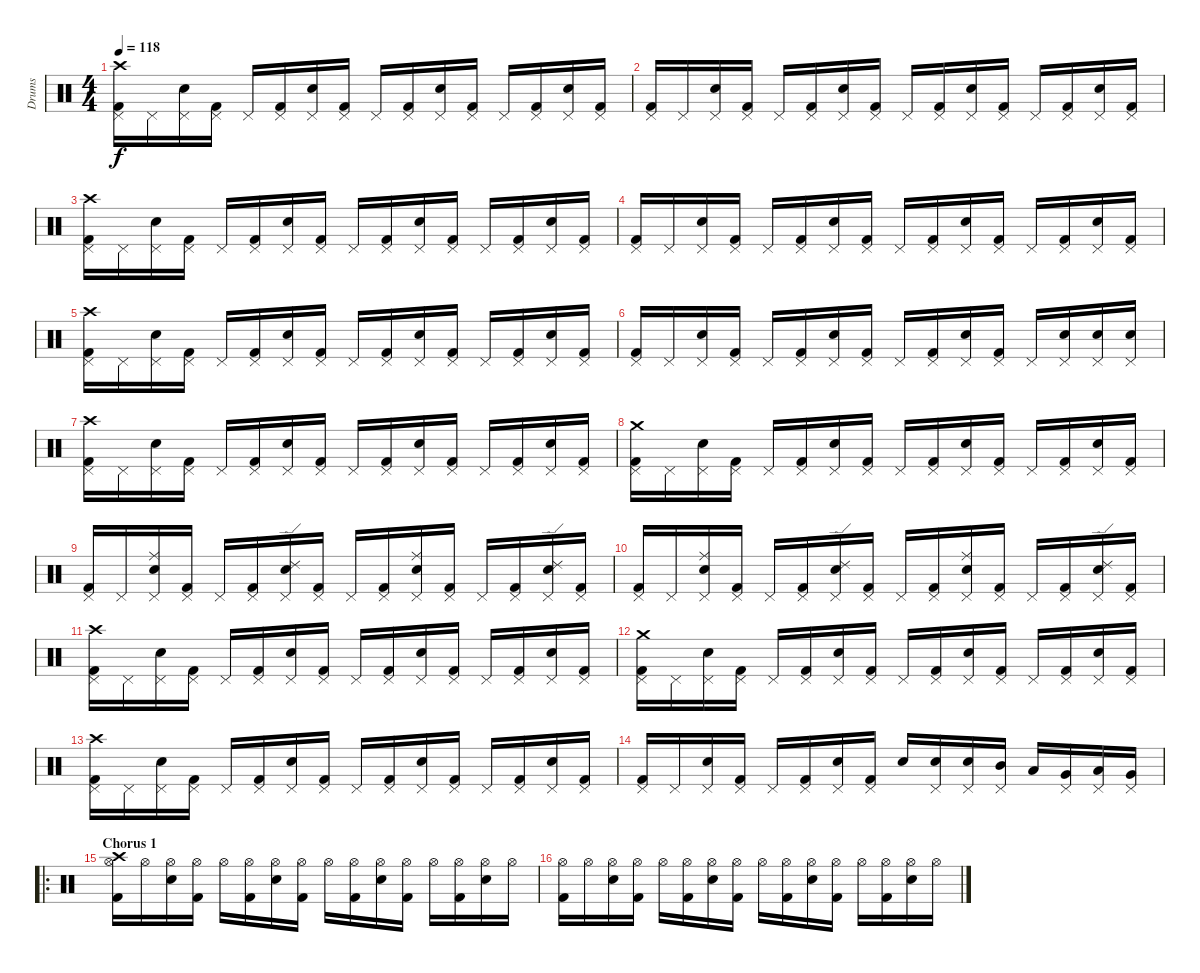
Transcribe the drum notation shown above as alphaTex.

\track ("Drums" "Drums") {instrument percussion}
\staff {score}
\articulation defaults
\ts (4 4)
\tempo 118
\clef neutral
\ks c
("Kick (hit) 2" "Pedal Hi-Hat (hit)" "Crash high (hit)").16{dy f} "Pedal Hi-Hat (hit)".16 ("Snare (hit) 2" "Pedal Hi-Hat (hit)").16 ("Kick (hit) 2" "Pedal Hi-Hat (hit)").16 "Pedal Hi-Hat (hit)".16 ("Kick (hit) 2" "Pedal Hi-Hat (hit)").16 ("Snare (hit) 2" "Pedal Hi-Hat (hit)").16 ("Kick (hit) 2" "Pedal Hi-Hat (hit)").16 "Pedal Hi-Hat (hit)".16 ("Kick (hit) 2" "Pedal Hi-Hat (hit)").16 ("Snare (hit) 2" "Pedal Hi-Hat (hit)").16 ("Kick (hit) 2" "Pedal Hi-Hat (hit)").16 "Pedal Hi-Hat (hit)".16 ("Kick (hit) 2" "Pedal Hi-Hat (hit)").16 ("Snare (hit) 2" "Pedal Hi-Hat (hit)").16 ("Kick (hit) 2" "Pedal Hi-Hat (hit)").16 |
("Kick (hit) 2" "Pedal Hi-Hat (hit)").16 "Pedal Hi-Hat (hit)".16 ("Snare (hit) 2" "Pedal Hi-Hat (hit)").16 ("Kick (hit) 2" "Pedal Hi-Hat (hit)").16 "Pedal Hi-Hat (hit)".16 ("Kick (hit) 2" "Pedal Hi-Hat (hit)").16 ("Snare (hit) 2" "Pedal Hi-Hat (hit)").16 ("Kick (hit) 2" "Pedal Hi-Hat (hit)").16 "Pedal Hi-Hat (hit)".16 ("Kick (hit) 2" "Pedal Hi-Hat (hit)").16 ("Snare (hit) 2" "Pedal Hi-Hat (hit)").16 ("Kick (hit) 2" "Pedal Hi-Hat (hit)").16 "Pedal Hi-Hat (hit)".16 ("Kick (hit) 2" "Pedal Hi-Hat (hit)").16 ("Snare (hit) 2" "Pedal Hi-Hat (hit)").16 ("Kick (hit) 2" "Pedal Hi-Hat (hit)").16 |
("Kick (hit) 2" "Pedal Hi-Hat (hit)" "Crash high (hit)").16 "Pedal Hi-Hat (hit)".16 ("Snare (hit) 2" "Pedal Hi-Hat (hit)").16 ("Kick (hit) 2" "Pedal Hi-Hat (hit)").16 "Pedal Hi-Hat (hit)".16 ("Kick (hit) 2" "Pedal Hi-Hat (hit)").16 ("Snare (hit) 2" "Pedal Hi-Hat (hit)").16 ("Kick (hit) 2" "Pedal Hi-Hat (hit)").16 "Pedal Hi-Hat (hit)".16 ("Kick (hit) 2" "Pedal Hi-Hat (hit)").16 ("Snare (hit) 2" "Pedal Hi-Hat (hit)").16 ("Kick (hit) 2" "Pedal Hi-Hat (hit)").16 "Pedal Hi-Hat (hit)".16 ("Kick (hit) 2" "Pedal Hi-Hat (hit)").16 ("Snare (hit) 2" "Pedal Hi-Hat (hit)").16 ("Kick (hit) 2" "Pedal Hi-Hat (hit)").16 |
("Kick (hit) 2" "Pedal Hi-Hat (hit)").16 "Pedal Hi-Hat (hit)".16 ("Snare (hit) 2" "Pedal Hi-Hat (hit)").16 ("Kick (hit) 2" "Pedal Hi-Hat (hit)").16 "Pedal Hi-Hat (hit)".16 ("Kick (hit) 2" "Pedal Hi-Hat (hit)").16 ("Snare (hit) 2" "Pedal Hi-Hat (hit)").16 ("Kick (hit) 2" "Pedal Hi-Hat (hit)").16 "Pedal Hi-Hat (hit)".16 ("Kick (hit) 2" "Pedal Hi-Hat (hit)").16 ("Snare (hit) 2" "Pedal Hi-Hat (hit)").16 ("Kick (hit) 2" "Pedal Hi-Hat (hit)").16 "Pedal Hi-Hat (hit)".16 ("Kick (hit) 2" "Pedal Hi-Hat (hit)").16 ("Snare (hit) 2" "Pedal Hi-Hat (hit)").16 ("Kick (hit) 2" "Pedal Hi-Hat (hit)").16 |
("Kick (hit) 2" "Pedal Hi-Hat (hit)" "Crash high (hit)").16 "Pedal Hi-Hat (hit)".16 ("Snare (hit) 2" "Pedal Hi-Hat (hit)").16 ("Kick (hit) 2" "Pedal Hi-Hat (hit)").16 "Pedal Hi-Hat (hit)".16 ("Kick (hit) 2" "Pedal Hi-Hat (hit)").16 ("Snare (hit) 2" "Pedal Hi-Hat (hit)").16 ("Kick (hit) 2" "Pedal Hi-Hat (hit)").16 "Pedal Hi-Hat (hit)".16 ("Kick (hit) 2" "Pedal Hi-Hat (hit)").16 ("Snare (hit) 2" "Pedal Hi-Hat (hit)").16 ("Kick (hit) 2" "Pedal Hi-Hat (hit)").16 "Pedal Hi-Hat (hit)".16 ("Kick (hit) 2" "Pedal Hi-Hat (hit)").16 ("Snare (hit) 2" "Pedal Hi-Hat (hit)").16 ("Kick (hit) 2" "Pedal Hi-Hat (hit)").16 |
("Kick (hit) 2" "Pedal Hi-Hat (hit)").16 "Pedal Hi-Hat (hit)".16 ("Snare (hit) 2" "Pedal Hi-Hat (hit)").16 ("Kick (hit) 2" "Pedal Hi-Hat (hit)").16 "Pedal Hi-Hat (hit)".16 ("Kick (hit) 2" "Pedal Hi-Hat (hit)").16 ("Snare (hit) 2" "Pedal Hi-Hat (hit)").16 ("Kick (hit) 2" "Pedal Hi-Hat (hit)").16 "Pedal Hi-Hat (hit)".16 ("Kick (hit) 2" "Pedal Hi-Hat (hit)").16 ("Snare (hit) 2" "Pedal Hi-Hat (hit)").16 ("Kick (hit) 2" "Pedal Hi-Hat (hit)").16 "Pedal Hi-Hat (hit)".16 ("Snare (hit) 2" "Pedal Hi-Hat (hit)").16 ("Snare (hit) 2" "Pedal Hi-Hat (hit)").16 ("Snare (hit) 2" "Pedal Hi-Hat (hit)").16 |
("Kick (hit) 2" "Pedal Hi-Hat (hit)" "Crash high (hit)").16 "Pedal Hi-Hat (hit)".16 ("Snare (hit) 2" "Pedal Hi-Hat (hit)").16 ("Kick (hit) 2" "Pedal Hi-Hat (hit)").16 "Pedal Hi-Hat (hit)".16 ("Kick (hit) 2" "Pedal Hi-Hat (hit)").16 ("Snare (hit) 2" "Pedal Hi-Hat (hit)").16 ("Kick (hit) 2" "Pedal Hi-Hat (hit)").16 "Pedal Hi-Hat (hit)".16 ("Kick (hit) 2" "Pedal Hi-Hat (hit)").16 ("Snare (hit) 2" "Pedal Hi-Hat (hit)").16 ("Kick (hit) 2" "Pedal Hi-Hat (hit)").16 "Pedal Hi-Hat (hit)".16 ("Kick (hit) 2" "Pedal Hi-Hat (hit)").16 ("Snare (hit) 2" "Pedal Hi-Hat (hit)").16 ("Kick (hit) 2" "Pedal Hi-Hat (hit)").16 |
("Kick (hit) 2" "Pedal Hi-Hat (hit)" "Crash medium (hit)").16 "Pedal Hi-Hat (hit)".16 ("Snare (hit) 2" "Pedal Hi-Hat (hit)").16 ("Kick (hit) 2" "Pedal Hi-Hat (hit)").16 "Pedal Hi-Hat (hit)".16 ("Kick (hit) 2" "Pedal Hi-Hat (hit)").16 ("Snare (hit) 2" "Pedal Hi-Hat (hit)").16 ("Kick (hit) 2" "Pedal Hi-Hat (hit)").16 "Pedal Hi-Hat (hit)".16 ("Kick (hit) 2" "Pedal Hi-Hat (hit)").16 ("Snare (hit) 2" "Pedal Hi-Hat (hit)").16 ("Kick (hit) 2" "Pedal Hi-Hat (hit)").16 "Pedal Hi-Hat (hit)".16 ("Kick (hit) 2" "Pedal Hi-Hat (hit)").16 ("Snare (hit) 2" "Pedal Hi-Hat (hit)").16 ("Kick (hit) 2" "Pedal Hi-Hat (hit)").16 |
("Kick (hit) 2" "Pedal Hi-Hat (hit)").16 "Pedal Hi-Hat (hit)".16 ("Snare (hit) 2" "Pedal Hi-Hat (hit)" "Ride (middle)").16 ("Kick (hit) 2" "Pedal Hi-Hat (hit)").16 "Pedal Hi-Hat (hit)".16 ("Kick (hit) 2" "Pedal Hi-Hat (hit)").16 ("Snare (hit) 2" "Pedal Hi-Hat (hit)" "Ride (edge) 2").16 ("Kick (hit) 2" "Pedal Hi-Hat (hit)").16 "Pedal Hi-Hat (hit)".16 ("Kick (hit) 2" "Pedal Hi-Hat (hit)").16 ("Snare (hit) 2" "Pedal Hi-Hat (hit)" "Ride (middle)").16 ("Kick (hit) 2" "Pedal Hi-Hat (hit)").16 "Pedal Hi-Hat (hit)".16 ("Kick (hit) 2" "Pedal Hi-Hat (hit)").16 ("Snare (hit) 2" "Pedal Hi-Hat (hit)" "Ride (edge) 2").16 ("Kick (hit) 2" "Pedal Hi-Hat (hit)").16 |
("Kick (hit) 2" "Pedal Hi-Hat (hit)").16 "Pedal Hi-Hat (hit)".16 ("Snare (hit) 2" "Pedal Hi-Hat (hit)" "Ride (middle)").16 ("Kick (hit) 2" "Pedal Hi-Hat (hit)").16 "Pedal Hi-Hat (hit)".16 ("Kick (hit) 2" "Pedal Hi-Hat (hit)").16 ("Snare (hit) 2" "Pedal Hi-Hat (hit)" "Ride (edge) 2").16 ("Kick (hit) 2" "Pedal Hi-Hat (hit)").16 "Pedal Hi-Hat (hit)".16 ("Kick (hit) 2" "Pedal Hi-Hat (hit)").16 ("Snare (hit) 2" "Pedal Hi-Hat (hit)" "Ride (middle)").16 ("Kick (hit) 2" "Pedal Hi-Hat (hit)").16 "Pedal Hi-Hat (hit)".16 ("Kick (hit) 2" "Pedal Hi-Hat (hit)").16 ("Snare (hit) 2" "Pedal Hi-Hat (hit)" "Ride (edge) 2").16 ("Kick (hit) 2" "Pedal Hi-Hat (hit)").16 |
("Kick (hit) 2" "Pedal Hi-Hat (hit)" "Crash high (hit)").16 "Pedal Hi-Hat (hit)".16 ("Snare (hit) 2" "Pedal Hi-Hat (hit)").16 ("Kick (hit) 2" "Pedal Hi-Hat (hit)").16 "Pedal Hi-Hat (hit)".16 ("Kick (hit) 2" "Pedal Hi-Hat (hit)").16 ("Snare (hit) 2" "Pedal Hi-Hat (hit)").16 ("Kick (hit) 2" "Pedal Hi-Hat (hit)").16 "Pedal Hi-Hat (hit)".16 ("Kick (hit) 2" "Pedal Hi-Hat (hit)").16 ("Snare (hit) 2" "Pedal Hi-Hat (hit)").16 ("Kick (hit) 2" "Pedal Hi-Hat (hit)").16 "Pedal Hi-Hat (hit)".16 ("Kick (hit) 2" "Pedal Hi-Hat (hit)").16 ("Snare (hit) 2" "Pedal Hi-Hat (hit)").16 ("Kick (hit) 2" "Pedal Hi-Hat (hit)").16 |
("Kick (hit) 2" "Pedal Hi-Hat (hit)" "Crash medium (hit)").16 "Pedal Hi-Hat (hit)".16 ("Snare (hit) 2" "Pedal Hi-Hat (hit)").16 ("Kick (hit) 2" "Pedal Hi-Hat (hit)").16 "Pedal Hi-Hat (hit)".16 ("Kick (hit) 2" "Pedal Hi-Hat (hit)").16 ("Snare (hit) 2" "Pedal Hi-Hat (hit)").16 ("Kick (hit) 2" "Pedal Hi-Hat (hit)").16 "Pedal Hi-Hat (hit)".16 ("Kick (hit) 2" "Pedal Hi-Hat (hit)").16 ("Snare (hit) 2" "Pedal Hi-Hat (hit)").16 ("Kick (hit) 2" "Pedal Hi-Hat (hit)").16 "Pedal Hi-Hat (hit)".16 ("Kick (hit) 2" "Pedal Hi-Hat (hit)").16 ("Snare (hit) 2" "Pedal Hi-Hat (hit)").16 ("Kick (hit) 2" "Pedal Hi-Hat (hit)").16 |
("Kick (hit) 2" "Pedal Hi-Hat (hit)" "Crash high (hit)").16 "Pedal Hi-Hat (hit)".16 ("Snare (hit) 2" "Pedal Hi-Hat (hit)").16 ("Kick (hit) 2" "Pedal Hi-Hat (hit)").16 "Pedal Hi-Hat (hit)".16 ("Kick (hit) 2" "Pedal Hi-Hat (hit)").16 ("Snare (hit) 2" "Pedal Hi-Hat (hit)").16 ("Kick (hit) 2" "Pedal Hi-Hat (hit)").16 "Pedal Hi-Hat (hit)".16 ("Kick (hit) 2" "Pedal Hi-Hat (hit)").16 ("Snare (hit) 2" "Pedal Hi-Hat (hit)").16 ("Kick (hit) 2" "Pedal Hi-Hat (hit)").16 "Pedal Hi-Hat (hit)".16 ("Kick (hit) 2" "Pedal Hi-Hat (hit)").16 ("Snare (hit) 2" "Pedal Hi-Hat (hit)").16 ("Kick (hit) 2" "Pedal Hi-Hat (hit)").16 |
("Kick (hit) 2" "Pedal Hi-Hat (hit)").16 "Pedal Hi-Hat (hit)".16 ("Snare (hit) 2" "Pedal Hi-Hat (hit)").16 ("Kick (hit) 2" "Pedal Hi-Hat (hit)").16 "Pedal Hi-Hat (hit)".16 ("Kick (hit) 2" "Pedal Hi-Hat (hit)").16 ("Snare (hit) 2" "Pedal Hi-Hat (hit)").16 ("Kick (hit) 2" "Pedal Hi-Hat (hit)").16 "Snare (hit) 2".16 ("Snare (hit) 2" "Pedal Hi-Hat (hit)").16 ("Snare (hit) 2" "Pedal Hi-Hat (hit)").16 ("Mid Tom (hit)" "Pedal Hi-Hat (hit)").16 "Low Tom (hit)".16 ("Very Low Tom (hit)" "Pedal Hi-Hat (hit)").16 ("Low Floor Tom (hit)" "Pedal Hi-Hat (hit)").16 ("Very Low Tom (hit)" "Pedal Hi-Hat (hit)").16 |
\ro
\section ("" "Chorus 1")
("Kick (hit) 2" "Hi-Hat (open)" "Crash high (hit)").16 "Hi-Hat (open)".16 ("Snare (hit) 2" "Hi-Hat (open)").16 ("Kick (hit) 2" "Hi-Hat (open)").16 "Hi-Hat (open)".16 ("Kick (hit) 2" "Hi-Hat (open)").16 ("Snare (hit) 2" "Hi-Hat (open)").16 ("Kick (hit) 2" "Hi-Hat (open)").16 "Hi-Hat (open)".16 ("Kick (hit) 2" "Hi-Hat (open)").16 ("Snare (hit) 2" "Hi-Hat (open)").16 ("Kick (hit) 2" "Hi-Hat (open)").16 "Hi-Hat (open)".16 ("Kick (hit) 2" "Hi-Hat (open)").16 ("Snare (hit) 2" "Hi-Hat (open)").16 "Hi-Hat (open)".16 |
("Kick (hit) 2" "Hi-Hat (open)").16 "Hi-Hat (open)".16 ("Snare (hit) 2" "Hi-Hat (open)").16 ("Kick (hit) 2" "Hi-Hat (open)").16 "Hi-Hat (open)".16 ("Kick (hit) 2" "Hi-Hat (open)").16 ("Snare (hit) 2" "Hi-Hat (open)").16 ("Kick (hit) 2" "Hi-Hat (open)").16 "Hi-Hat (open)".16 ("Kick (hit) 2" "Hi-Hat (open)").16 ("Snare (hit) 2" "Hi-Hat (open)").16 ("Kick (hit) 2" "Hi-Hat (open)").16 "Hi-Hat (open)".16 ("Kick (hit) 2" "Hi-Hat (open)").16 ("Snare (hit) 2" "Hi-Hat (open)").16 "Hi-Hat (open)".16
